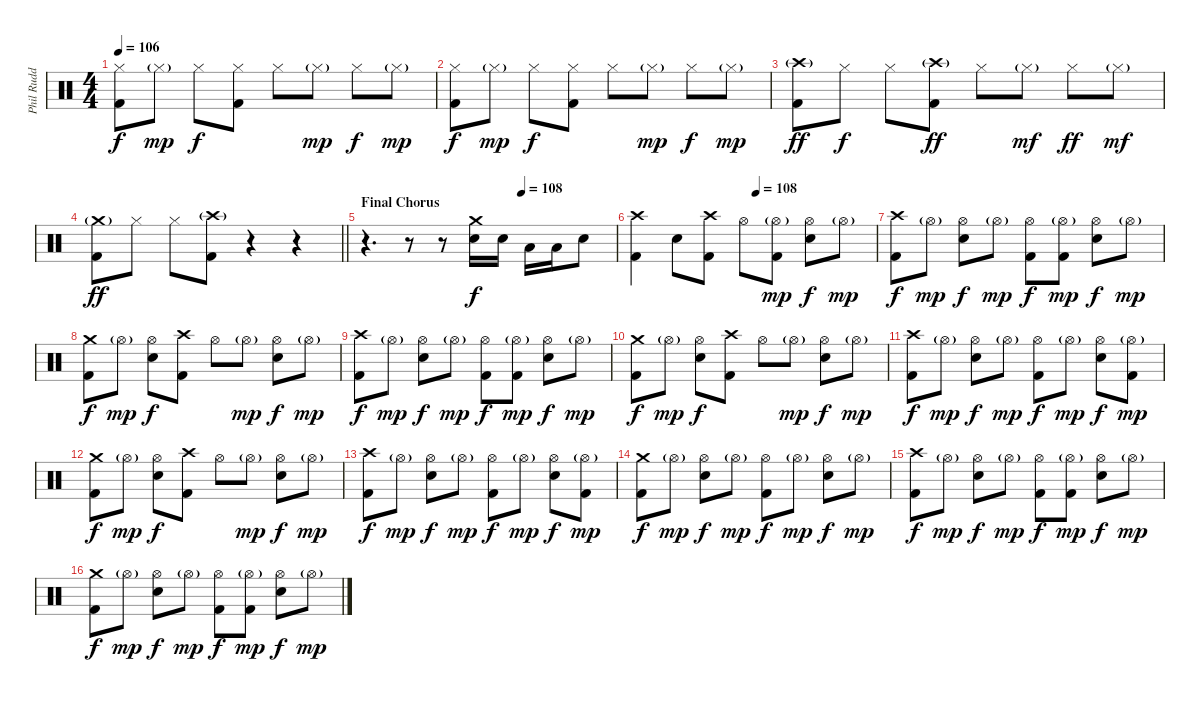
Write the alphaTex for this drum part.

\track ("Phil Rudd" "Phil Rudd") {instrument percussion}
\staff {score}
\articulation defaults
\ts (4 4)
\tempo 106
\clef neutral
\ks c
("Hi-Hat (closed)" "Kick (hit) 2").8{dy f} "Hi-Hat (closed)"{g}.8{dy mp} "Hi-Hat (closed)".8{dy f} ("Hi-Hat (closed)" "Kick (hit) 2").8 "Hi-Hat (closed)".8 "Hi-Hat (closed)"{g}.8{dy mp} "Hi-Hat (closed)".8{dy f} "Hi-Hat (closed)"{g}.8{dy mp} |
("Hi-Hat (closed)" "Kick (hit) 2").8{dy f} "Hi-Hat (closed)"{g}.8{dy mp} "Hi-Hat (closed)".8{dy f} ("Hi-Hat (closed)" "Kick (hit) 2").8 "Hi-Hat (closed)".8 "Hi-Hat (closed)"{g}.8{dy mp} "Hi-Hat (closed)".8{dy f} "Hi-Hat (closed)"{g}.8{dy mp} |
("Crash high (hit)"{g} "Kick (hit) 2").8{dy ff} "Hi-Hat (closed)".8{dy f} "Hi-Hat (closed)".8 ("Crash high (hit)"{g} "Kick (hit) 2").8{dy ff} "Hi-Hat (closed)".8 "Hi-Hat (closed)"{g}.8{dy mf} "Hi-Hat (closed)".8{dy ff} "Hi-Hat (closed)"{g}.8{dy mf} |
\barLineRight lightlight
("Crash medium (hit)"{g} "Kick (hit) 2").8{dy ff} "Hi-Hat (closed)".8 "Hi-Hat (closed)".8 ("Crash high (hit)"{g} "Kick (hit) 2").8 r.4 r.4 |
\section ("" "Final Chorus")
\tempo (108 0.625)
r.4{d} r.8 r.8 ("Crash medium (hit)" "Electric Snare (hit)").16{dy f} "Electric Snare (hit)".16 "Low Tom (hit)".16 "Low Tom (hit)".16 "Electric Snare (hit)".8 |
\tempo (108 0.5)
("Crash high (hit)" "Kick (hit) 2").4 "Electric Snare (hit)".8 ("Crash high (hit)" "Kick (hit) 2").8 "Hi-Hat (open)".8 ("Hi-Hat (open)"{g} "Kick (hit) 2").8{dy mp} ("Hi-Hat (open)" "Electric Snare (hit)").8{dy f} "Hi-Hat (open)"{g}.8{dy mp} |
("Crash high (hit)" "Kick (hit) 2").8{dy f} "Hi-Hat (open)"{g}.8{dy mp} ("Hi-Hat (open)" "Electric Snare (hit)").8{dy f} "Hi-Hat (open)"{g}.8{dy mp} ("Hi-Hat (open)" "Kick (hit) 2").8{dy f} ("Hi-Hat (open)"{g} "Kick (hit) 2").8{dy mp} ("Hi-Hat (open)" "Electric Snare (hit)").8{dy f} "Hi-Hat (open)"{g}.8{dy mp} |
("Crash medium (hit)" "Kick (hit) 2").8{dy f} "Hi-Hat (open)"{g}.8{dy mp} ("Hi-Hat (open)" "Electric Snare (hit)").8{dy f} ("Crash high (hit)" "Kick (hit) 2").8 "Hi-Hat (open)".8 "Hi-Hat (open)"{g}.8{dy mp} ("Hi-Hat (open)" "Electric Snare (hit)").8{dy f} "Hi-Hat (open)"{g}.8{dy mp} |
("Crash high (hit)" "Kick (hit) 2").8{dy f} "Hi-Hat (open)"{g}.8{dy mp} ("Hi-Hat (open)" "Electric Snare (hit)").8{dy f} "Hi-Hat (open)"{g}.8{dy mp} ("Hi-Hat (open)" "Kick (hit) 2").8{dy f} ("Hi-Hat (open)"{g} "Kick (hit) 2").8{dy mp} ("Hi-Hat (open)" "Electric Snare (hit)").8{dy f} "Hi-Hat (open)"{g}.8{dy mp} |
("Crash medium (hit)" "Kick (hit) 2").8{dy f} "Hi-Hat (open)"{g}.8{dy mp} ("Hi-Hat (open)" "Electric Snare (hit)").8{dy f} ("Crash high (hit)" "Kick (hit) 2").8 "Hi-Hat (open)".8 "Hi-Hat (open)"{g}.8{dy mp} ("Hi-Hat (open)" "Electric Snare (hit)").8{dy f} "Hi-Hat (open)"{g}.8{dy mp} |
("Crash high (hit)" "Kick (hit) 2").8{dy f} "Hi-Hat (open)"{g}.8{dy mp} ("Hi-Hat (open)" "Electric Snare (hit)").8{dy f} "Hi-Hat (open)"{g}.8{dy mp} ("Hi-Hat (open)" "Kick (hit) 2").8{dy f} "Hi-Hat (open)"{g}.8{dy mp} ("Hi-Hat (open)" "Electric Snare (hit)").8{dy f} ("Hi-Hat (open)"{g} "Kick (hit) 2").8{dy mp} |
("Crash medium (hit)" "Kick (hit) 2").8{dy f} "Hi-Hat (open)"{g}.8{dy mp} ("Hi-Hat (open)" "Electric Snare (hit)").8{dy f} ("Crash high (hit)" "Kick (hit) 2").8 "Hi-Hat (open)".8 "Hi-Hat (open)"{g}.8{dy mp} ("Hi-Hat (open)" "Electric Snare (hit)").8{dy f} "Hi-Hat (open)"{g}.8{dy mp} |
("Crash high (hit)" "Kick (hit) 2").8{dy f} "Hi-Hat (open)"{g}.8{dy mp} ("Hi-Hat (open)" "Electric Snare (hit)").8{dy f} "Hi-Hat (open)"{g}.8{dy mp} ("Hi-Hat (open)" "Kick (hit) 2").8{dy f} "Hi-Hat (open)"{g}.8{dy mp} ("Hi-Hat (open)" "Electric Snare (hit)").8{dy f} ("Hi-Hat (open)"{g} "Kick (hit) 2").8{dy mp} |
("Crash medium (hit)" "Kick (hit) 2").8{dy f} "Hi-Hat (open)"{g}.8{dy mp} ("Hi-Hat (open)" "Electric Snare (hit)").8{dy f} "Hi-Hat (open)"{g}.8{dy mp} ("Hi-Hat (open)" "Kick (hit) 2").8{dy f} "Hi-Hat (open)"{g}.8{dy mp} ("Hi-Hat (open)" "Electric Snare (hit)").8{dy f} "Hi-Hat (open)"{g}.8{dy mp} |
("Crash high (hit)" "Kick (hit) 2").8{dy f} "Hi-Hat (open)"{g}.8{dy mp} ("Hi-Hat (open)" "Electric Snare (hit)").8{dy f} "Hi-Hat (open)"{g}.8{dy mp} ("Hi-Hat (open)" "Kick (hit) 2").8{dy f} ("Hi-Hat (open)"{g} "Kick (hit) 2").8{dy mp} ("Hi-Hat (open)" "Electric Snare (hit)").8{dy f} "Hi-Hat (open)"{g}.8{dy mp} |
("Crash medium (hit)" "Kick (hit) 2").8{dy f} "Hi-Hat (open)"{g}.8{dy mp} ("Hi-Hat (open)" "Electric Snare (hit)").8{dy f} "Hi-Hat (open)"{g}.8{dy mp} ("Hi-Hat (open)" "Kick (hit) 2").8{dy f} ("Hi-Hat (open)"{g} "Kick (hit) 2").8{dy mp} ("Hi-Hat (open)" "Electric Snare (hit)").8{dy f} "Hi-Hat (open)"{g}.8{dy mp}
